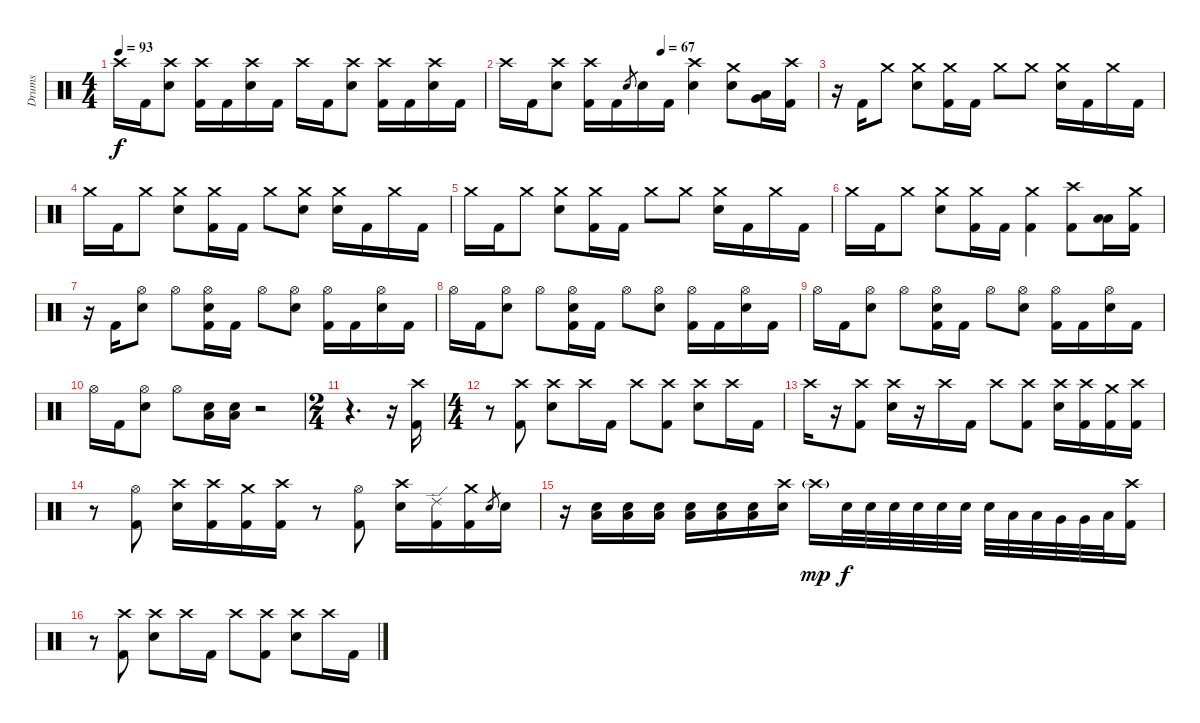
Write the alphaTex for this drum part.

\track ("Drums" "Drums") {instrument percussion}
\staff {score}
\articulation defaults
\ts (4 4)
\tempo 93
\clef neutral
\ks c "Crash high (hit)".16{dy f} "Kick (hit) 2".16
("Crash high (hit)" "Snare (hit) 2").8 ("Crash high (hit)" "Kick (hit) 2").16 "Kick (hit) 2".16 ("Crash high (hit)" "Snare (hit) 2").16 "Kick (hit) 2".16 "Crash high (hit)".16 "Kick (hit) 2".16 ("Crash high (hit)" "Snare (hit) 2").8 ("Crash high (hit)" "Kick (hit) 2").16 "Kick (hit) 2".16 ("Crash high (hit)" "Snare (hit) 2").16 "Kick (hit) 2".16 |
\tempo (67 0.5)
"Crash high (hit)".16 "Kick (hit) 2".16 ("Crash high (hit)" "Snare (hit) 2").8 ("Crash high (hit)" "Kick (hit) 2").16 "Kick (hit) 2".16 "Snare (hit) 2".8{gr} "Snare (hit) 2".16 "Kick (hit) 2".16 ("Crash high (hit)" "Snare (hit) 2").4 ("Crash medium (hit)" "Snare (hit) 2").8 ("Very Low Tom (hit)" "Low Floor Tom (hit)").16 ("Crash high (hit)" "Kick (hit) 2").16 |
r.16 "Kick (hit) 2".16 "Crash medium (hit)".8 ("Crash medium (hit)" "Snare (hit) 2").8 ("Crash medium (hit)" "Kick (hit) 2").16 "Kick (hit) 2".16 "Crash medium (hit)".8 "Crash medium (hit)".8 ("Crash medium (hit)" "Snare (hit) 2").16 "Kick (hit) 2".16 "Crash medium (hit)".16 "Kick (hit) 2".16 |
"Crash medium (hit)".16 "Kick (hit) 2".16 "Crash medium (hit)".8 ("Crash medium (hit)" "Snare (hit) 2").8 ("Crash medium (hit)" "Kick (hit) 2").16 "Kick (hit) 2".16 "Crash medium (hit)".8 ("Crash medium (hit)" "Snare (hit) 2").8 ("Crash medium (hit)" "Snare (hit) 2").16 "Kick (hit) 2".16 "Crash medium (hit)".16 "Kick (hit) 2".16 |
"Crash medium (hit)".16 "Kick (hit) 2".16 "Crash medium (hit)".8 ("Crash medium (hit)" "Snare (hit) 2").8 ("Crash medium (hit)" "Kick (hit) 2").16 "Kick (hit) 2".16 "Crash medium (hit)".8 "Crash medium (hit)".8 ("Crash medium (hit)" "Snare (hit) 2").16 "Kick (hit) 2".16 "Crash medium (hit)".16 "Kick (hit) 2".16 |
"Crash medium (hit)".16 "Kick (hit) 2".16 "Crash medium (hit)".8 ("Crash medium (hit)" "Snare (hit) 2").8 ("Crash medium (hit)" "Kick (hit) 2").16 "Kick (hit) 2".16 ("Crash medium (hit)" "Kick (hit) 2").4 ("Crash high (hit)" "Kick (hit) 2").8 ("Low Tom (hit)" "Low Floor Tom (hit)").16 ("Crash medium (hit)" "Kick (hit) 2").16 |
r.16 "Kick (hit) 2".16 ("Hi-Hat (open)" "Snare (hit) 2").8 "Hi-Hat (open)".8 ("Hi-Hat (open)" "Snare (hit) 2" "Kick (hit) 2").16 "Kick (hit) 2".16 "Hi-Hat (open)".8 ("Hi-Hat (open)" "Snare (hit) 2").8 ("Hi-Hat (open)" "Kick (hit) 2").16 "Kick (hit) 2".16 ("Hi-Hat (open)" "Snare (hit) 2").16 "Kick (hit) 2".16 |
"Hi-Hat (open)".16 "Kick (hit) 2".16 ("Hi-Hat (open)" "Snare (hit) 2").8 "Hi-Hat (open)".8 ("Hi-Hat (open)" "Snare (hit) 2" "Kick (hit) 2").16 "Kick (hit) 2".16 "Hi-Hat (open)".8 ("Hi-Hat (open)" "Snare (hit) 2").8 ("Hi-Hat (open)" "Kick (hit) 2").16 "Kick (hit) 2".16 ("Hi-Hat (open)" "Snare (hit) 2").16 "Kick (hit) 2".16 |
"Hi-Hat (open)".16 "Kick (hit) 2".16 ("Hi-Hat (open)" "Snare (hit) 2").8 "Hi-Hat (open)".8 ("Hi-Hat (open)" "Snare (hit) 2" "Kick (hit) 2").16 "Kick (hit) 2".16 "Hi-Hat (open)".8 ("Hi-Hat (open)" "Snare (hit) 2").8 ("Hi-Hat (open)" "Kick (hit) 2").16 "Kick (hit) 2".16 ("Hi-Hat (open)" "Snare (hit) 2").16 "Kick (hit) 2".16 |
"Hi-Hat (open)".16 "Kick (hit) 2".16 ("Hi-Hat (open)" "Snare (hit) 2").8 "Hi-Hat (open)".8 ("Low Floor Tom (hit)" "Snare (hit) 2").16 ("Low Floor Tom (hit)" "Snare (hit) 2").16 r.2 |
\ts (2 4)
r.4{d} r.16 ("Crash high (hit)" "Kick (hit) 2").16 |
\ts (4 4)
r.8 ("Crash high (hit)" "Kick (hit) 2").8 ("Crash high (hit)" "Snare (hit) 2").8 "Crash high (hit)".16 "Kick (hit) 2".16 "Crash high (hit)".8 ("Crash high (hit)" "Kick (hit) 2").8 ("Crash high (hit)" "Snare (hit) 2").8 "Crash high (hit)".16 "Kick (hit) 2".16 |
"Crash high (hit)".16 r.16 ("Crash high (hit)" "Kick (hit) 2").8 ("Crash high (hit)" "Snare (hit) 2").16 r.16 "Crash high (hit)".16 "Kick (hit) 2".16 "Crash high (hit)".8 ("Crash high (hit)" "Kick (hit) 2").8 ("Crash high (hit)" "Snare (hit) 2").16 ("Crash high (hit)" "Kick (hit) 2").16 ("Crash medium (hit)" "Kick (hit) 2").16 ("Crash high (hit)" "Kick (hit) 2").16 |
r.8 ("Hi-Hat (open)" "Kick (hit) 2").8 ("Crash high (hit)" "Snare (hit) 2").16 ("Crash high (hit)" "Kick (hit) 2").16 ("Crash medium (hit)" "Kick (hit) 2").16 ("Crash high (hit)" "Kick (hit) 2").16 r.8 ("Hi-Hat (open)" "Kick (hit) 2").8 ("Crash high (hit)" "Snare (hit) 2").16 ("Ride (edge) 2" "Kick (hit) 2").16 ("Crash medium (hit)" "Kick (hit) 2").16 "Snare (hit) 2".8{gr} "Snare (hit) 2".16 |
r.16 ("Low Floor Tom (hit)" "Snare (hit) 2").16 ("Low Floor Tom (hit)" "Snare (hit) 2").16 ("Low Floor Tom (hit)" "Snare (hit) 2").16 ("Low Floor Tom (hit)" "Snare (hit) 2").16 ("Low Floor Tom (hit)" "Snare (hit) 2").16 ("Low Floor Tom (hit)" "Snare (hit) 2").16 ("Crash high (hit)" "Snare (hit) 2").16 "Crash high (hit)"{g}.16{dy mp volume 0} "Snare (hit) 2".32{dy f volume 16} "Snare (hit) 2".32 "Snare (hit) 2".32 "Snare (hit) 2".32 "Snare (hit) 2".32 "Snare (hit) 2".32 "Snare (hit) 2".32 "Low Tom (hit)".32 "Low Tom (hit)".32 "Very Low Tom (hit)".32 "Very Low Tom (hit)".32 "Low Floor Tom (hit)".32 ("Crash high (hit)" "Kick (hit) 2").16 |
r.8 ("Crash high (hit)" "Kick (hit) 2").8 ("Crash high (hit)" "Snare (hit) 2").8 "Crash high (hit)".16 "Kick (hit) 2".16 "Crash high (hit)".8 ("Crash high (hit)" "Kick (hit) 2").8 ("Crash high (hit)" "Snare (hit) 2").8 "Crash high (hit)".16 "Kick (hit) 2".16
